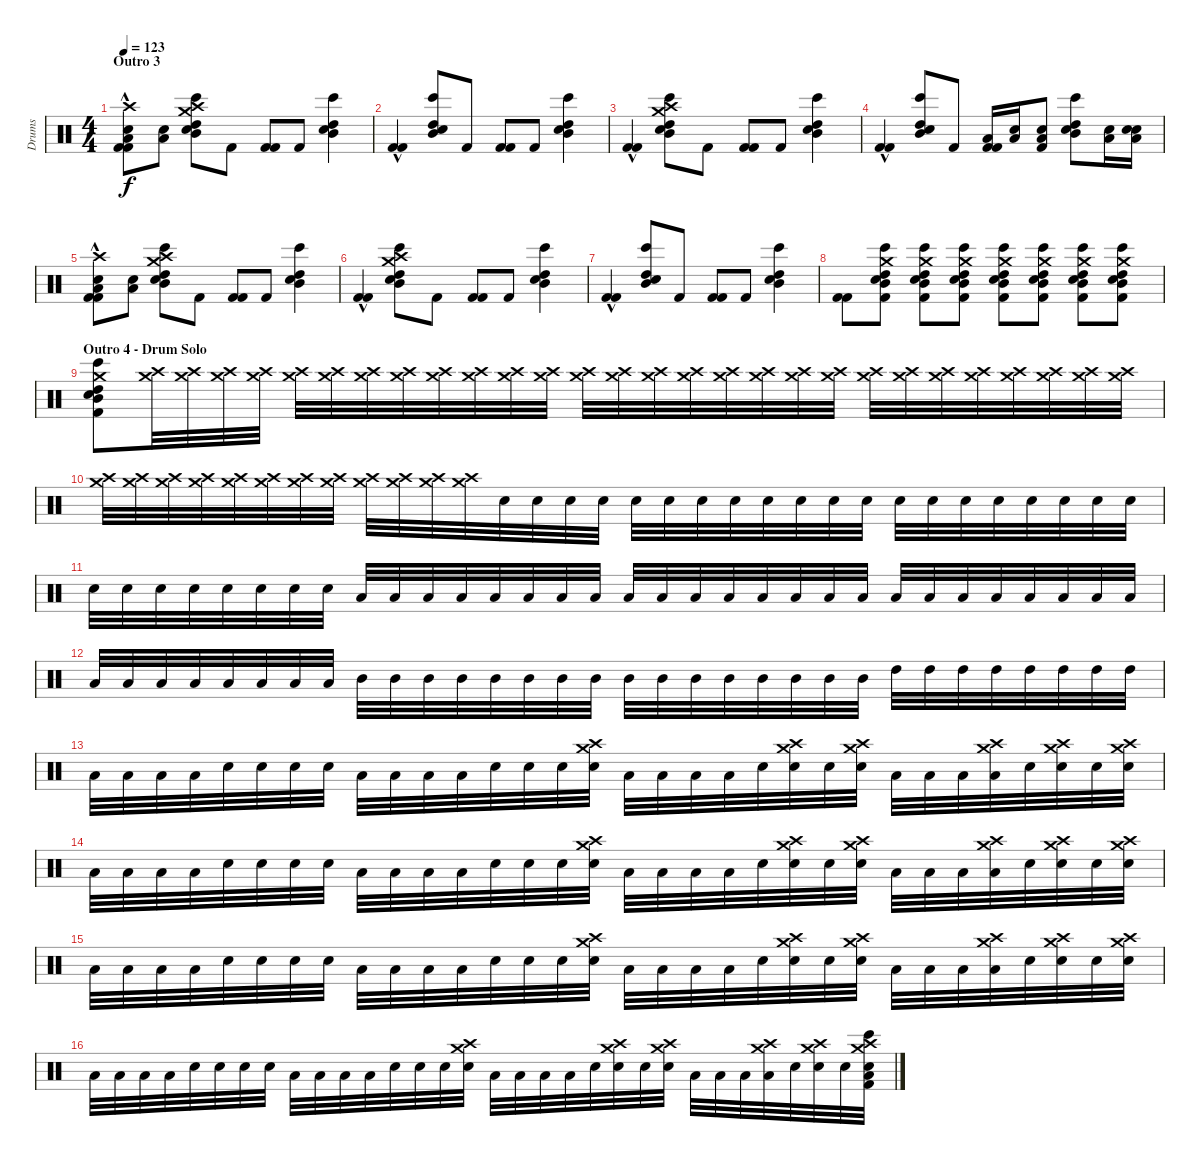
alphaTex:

\track ("Drums" "Drums") {instrument percussion}
\staff {score}
\articulation defaults
\ts (4 4)
\section ("" "Outro 3")
\tempo 123
\clef neutral
\ks c
("Crash high (hit)" "Snare (hit) 2" "Low Floor Tom (hit)" "Kick (hit) 2"{hac} "Kick (hit) 2"{hac}).8{dy f} ("Snare (hit) 2" "Low Floor Tom (hit)").8 ("Crash high (hit)" "Bongo High (hit)" "High Tom (hit)" "Mid Tom (hit)" "Snare (hit) 2" "Crash medium (hit)").8 "Kick (hit) 2".8 ("Kick (hit) 2" "Kick (hit) 2").8 "Kick (hit) 2".8 ("Bongo High (hit)" "High Tom (hit)" "Mid Tom (hit)" "Snare (hit) 2").4 |
("Kick (hit) 2"{hac} "Kick (hit) 2"{hac}).4 ("Bongo High (hit)" "High Tom (hit)" "Mid Tom (hit)" "Snare (hit) 2").8 "Kick (hit) 2".8 ("Kick (hit) 2" "Kick (hit) 2").8 "Kick (hit) 2".8 ("Bongo High (hit)" "High Tom (hit)" "Mid Tom (hit)" "Snare (hit) 2").4 |
("Kick (hit) 2"{hac} "Kick (hit) 2"{hac}).4 ("Crash high (hit)" "Bongo High (hit)" "High Tom (hit)" "Mid Tom (hit)" "Snare (hit) 2" "Crash medium (hit)").8 "Kick (hit) 2".8 ("Kick (hit) 2" "Kick (hit) 2").8 "Kick (hit) 2".8 ("Bongo High (hit)" "High Tom (hit)" "Mid Tom (hit)" "Snare (hit) 2").4 |
("Kick (hit) 2"{hac} "Kick (hit) 2"{hac}).4 ("Bongo High (hit)" "High Tom (hit)" "Mid Tom (hit)" "Snare (hit) 2").8 "Kick (hit) 2".8 ("Low Floor Tom (hit)" "Kick (hit) 2" "Kick (hit) 2").16 ("Snare (hit) 2" "Low Floor Tom (hit)").16 ("Snare (hit) 2" "Low Floor Tom (hit)" "Kick (hit) 2").8 ("Bongo High (hit)" "High Tom (hit)" "Mid Tom (hit)" "Snare (hit) 2").8 ("Low Floor Tom (hit)" "Snare (hit) 2").16 ("Snare (hit) 2" "Low Floor Tom (hit)" "Snare (hit) 2").16 |
("Crash high (hit)" "Snare (hit) 2" "Low Floor Tom (hit)" "Kick (hit) 2"{hac} "Kick (hit) 2"{hac}).8 ("Snare (hit) 2" "Low Floor Tom (hit)").8 ("Crash high (hit)" "Bongo High (hit)" "High Tom (hit)" "Mid Tom (hit)" "Snare (hit) 2" "Crash medium (hit)").8 "Kick (hit) 2".8 ("Kick (hit) 2" "Kick (hit) 2").8 "Kick (hit) 2".8 ("Bongo High (hit)" "High Tom (hit)" "Mid Tom (hit)" "Snare (hit) 2").4 |
("Kick (hit) 2"{hac} "Kick (hit) 2"{hac}).4 ("Crash high (hit)" "Bongo High (hit)" "High Tom (hit)" "Mid Tom (hit)" "Snare (hit) 2" "Crash medium (hit)").8 "Kick (hit) 2".8 ("Kick (hit) 2" "Kick (hit) 2").8 "Kick (hit) 2".8 ("Bongo High (hit)" "High Tom (hit)" "Mid Tom (hit)" "Snare (hit) 2").4 |
("Kick (hit) 2"{hac} "Kick (hit) 2"{hac}).4 ("Bongo High (hit)" "High Tom (hit)" "Mid Tom (hit)" "Snare (hit) 2").8 "Kick (hit) 2".8 ("Kick (hit) 2" "Kick (hit) 2").8 "Kick (hit) 2".8 ("Bongo High (hit)" "High Tom (hit)" "Mid Tom (hit)" "Snare (hit) 2").4 |
("Kick (hit) 2" "Kick (hit) 2").8 ("Crash medium (hit)" "Bongo High (hit)" "High Tom (hit)" "Mid Tom (hit)" "Snare (hit) 2" "Kick (hit) 2").8 ("Crash medium (hit)" "Bongo High (hit)" "High Tom (hit)" "Mid Tom (hit)" "Snare (hit) 2" "Kick (hit) 2").8 ("Crash medium (hit)" "Bongo High (hit)" "High Tom (hit)" "Mid Tom (hit)" "Snare (hit) 2" "Kick (hit) 2").8 ("Crash medium (hit)" "Bongo High (hit)" "High Tom (hit)" "Mid Tom (hit)" "Snare (hit) 2" "Kick (hit) 2").8 ("Crash medium (hit)" "Bongo High (hit)" "High Tom (hit)" "Mid Tom (hit)" "Snare (hit) 2" "Kick (hit) 2").8 ("Crash medium (hit)" "Bongo High (hit)" "High Tom (hit)" "Mid Tom (hit)" "Snare (hit) 2" "Kick (hit) 2").8 ("Crash medium (hit)" "Bongo High (hit)" "High Tom (hit)" "Mid Tom (hit)" "Snare (hit) 2" "Kick (hit) 2").8 |
\section ("" "Outro 4 - Drum Solo")
("Crash medium (hit)" "Bongo High (hit)" "High Tom (hit)" "Mid Tom (hit)" "Snare (hit) 2" "Kick (hit) 2").8 ("Crash medium (hit)" "Crash high (hit)").32 ("Crash medium (hit)" "Crash high (hit)").32 ("Crash medium (hit)" "Crash high (hit)").32 ("Crash medium (hit)" "Crash high (hit)").32 ("Crash medium (hit)" "Crash high (hit)").32 ("Crash medium (hit)" "Crash high (hit)").32 ("Crash medium (hit)" "Crash high (hit)").32 ("Crash medium (hit)" "Crash high (hit)").32 ("Crash medium (hit)" "Crash high (hit)").32 ("Crash medium (hit)" "Crash high (hit)").32 ("Crash medium (hit)" "Crash high (hit)").32 ("Crash medium (hit)" "Crash high (hit)").32 ("Crash medium (hit)" "Crash high (hit)").32 ("Crash medium (hit)" "Crash high (hit)").32 ("Crash medium (hit)" "Crash high (hit)").32 ("Crash medium (hit)" "Crash high (hit)").32 ("Crash medium (hit)" "Crash high (hit)").32 ("Crash medium (hit)" "Crash high (hit)").32 ("Crash medium (hit)" "Crash high (hit)").32 ("Crash medium (hit)" "Crash high (hit)").32 ("Crash medium (hit)" "Crash high (hit)").32 ("Crash medium (hit)" "Crash high (hit)").32 ("Crash medium (hit)" "Crash high (hit)").32 ("Crash medium (hit)" "Crash high (hit)").32 ("Crash medium (hit)" "Crash high (hit)").32 ("Crash medium (hit)" "Crash high (hit)").32 ("Crash medium (hit)" "Crash high (hit)").32 ("Crash medium (hit)" "Crash high (hit)").32 |
("Crash medium (hit)" "Crash high (hit)").32 ("Crash medium (hit)" "Crash high (hit)").32 ("Crash medium (hit)" "Crash high (hit)").32 ("Crash medium (hit)" "Crash high (hit)").32 ("Crash medium (hit)" "Crash high (hit)").32 ("Crash medium (hit)" "Crash high (hit)").32 ("Crash medium (hit)" "Crash high (hit)").32 ("Crash medium (hit)" "Crash high (hit)").32 ("Crash medium (hit)" "Crash high (hit)").32 ("Crash medium (hit)" "Crash high (hit)").32 ("Crash medium (hit)" "Crash high (hit)").32 ("Crash medium (hit)" "Crash high (hit)").32 "Snare (hit) 2".32 "Snare (hit) 2".32 "Snare (hit) 2".32 "Snare (hit) 2".32 "Snare (hit) 2".32 "Snare (hit) 2".32 "Snare (hit) 2".32 "Snare (hit) 2".32 "Snare (hit) 2".32 "Snare (hit) 2".32 "Snare (hit) 2".32 "Snare (hit) 2".32 "Snare (hit) 2".32 "Snare (hit) 2".32 "Snare (hit) 2".32 "Snare (hit) 2".32 "Snare (hit) 2".32 "Snare (hit) 2".32 "Snare (hit) 2".32 "Snare (hit) 2".32 |
"Snare (hit) 2".32 "Snare (hit) 2".32 "Snare (hit) 2".32 "Snare (hit) 2".32 "Snare (hit) 2".32 "Snare (hit) 2".32 "Snare (hit) 2".32 "Snare (hit) 2".32 "Low Floor Tom (hit)".32 "Low Floor Tom (hit)".32 "Low Floor Tom (hit)".32 "Low Floor Tom (hit)".32 "Low Floor Tom (hit)".32 "Low Floor Tom (hit)".32 "Low Floor Tom (hit)".32 "Low Floor Tom (hit)".32 "Low Floor Tom (hit)".32 "Low Floor Tom (hit)".32 "Low Floor Tom (hit)".32 "Low Floor Tom (hit)".32 "Low Floor Tom (hit)".32 "Low Floor Tom (hit)".32 "Low Floor Tom (hit)".32 "Low Floor Tom (hit)".32 "Low Floor Tom (hit)".32 "Low Floor Tom (hit)".32 "Low Floor Tom (hit)".32 "Low Floor Tom (hit)".32 "Low Floor Tom (hit)".32 "Low Floor Tom (hit)".32 "Low Floor Tom (hit)".32 "Low Floor Tom (hit)".32 |
"Low Floor Tom (hit)".32 "Low Floor Tom (hit)".32 "Low Floor Tom (hit)".32 "Low Floor Tom (hit)".32 "Low Floor Tom (hit)".32 "Low Floor Tom (hit)".32 "Low Floor Tom (hit)".32 "Low Floor Tom (hit)".32 "Mid Tom (hit)".32 "Mid Tom (hit)".32 "Mid Tom (hit)".32 "Mid Tom (hit)".32 "Mid Tom (hit)".32 "Mid Tom (hit)".32 "Mid Tom (hit)".32 "Mid Tom (hit)".32 "Mid Tom (hit)".32 "Mid Tom (hit)".32 "Mid Tom (hit)".32 "Mid Tom (hit)".32 "Mid Tom (hit)".32 "Mid Tom (hit)".32 "Mid Tom (hit)".32 "Mid Tom (hit)".32 "High Tom (hit)".32 "High Tom (hit)".32 "High Tom (hit)".32 "High Tom (hit)".32 "High Tom (hit)".32 "High Tom (hit)".32 "High Tom (hit)".32 "High Tom (hit)".32 |
"Low Floor Tom (hit)".32 "Low Floor Tom (hit)".32 "Low Floor Tom (hit)".32 "Low Floor Tom (hit)".32 "Snare (hit) 2".32 "Snare (hit) 2".32 "Snare (hit) 2".32 "Snare (hit) 2".32 "Low Floor Tom (hit)".32 "Low Floor Tom (hit)".32 "Low Floor Tom (hit)".32 "Low Floor Tom (hit)".32 "Snare (hit) 2".32 "Snare (hit) 2".32 "Snare (hit) 2".32 ("Crash high (hit)" "Crash medium (hit)" "Snare (hit) 2").32 "Low Floor Tom (hit)".32 "Low Floor Tom (hit)".32 "Low Floor Tom (hit)".32 "Low Floor Tom (hit)".32 "Snare (hit) 2".32 ("Crash high (hit)" "Crash medium (hit)" "Snare (hit) 2").32 "Snare (hit) 2".32 ("Crash high (hit)" "Crash medium (hit)" "Snare (hit) 2").32 "Low Floor Tom (hit)".32 "Low Floor Tom (hit)".32 "Low Floor Tom (hit)".32 ("Crash high (hit)" "Crash medium (hit)" "Low Floor Tom (hit)").32 "Snare (hit) 2".32 ("Crash high (hit)" "Crash medium (hit)" "Snare (hit) 2").32 "Snare (hit) 2".32 ("Crash high (hit)" "Crash medium (hit)" "Snare (hit) 2").32 |
"Low Floor Tom (hit)".32 "Low Floor Tom (hit)".32 "Low Floor Tom (hit)".32 "Low Floor Tom (hit)".32 "Snare (hit) 2".32 "Snare (hit) 2".32 "Snare (hit) 2".32 "Snare (hit) 2".32 "Low Floor Tom (hit)".32 "Low Floor Tom (hit)".32 "Low Floor Tom (hit)".32 "Low Floor Tom (hit)".32 "Snare (hit) 2".32 "Snare (hit) 2".32 "Snare (hit) 2".32 ("Crash high (hit)" "Crash medium (hit)" "Snare (hit) 2").32 "Low Floor Tom (hit)".32 "Low Floor Tom (hit)".32 "Low Floor Tom (hit)".32 "Low Floor Tom (hit)".32 "Snare (hit) 2".32 ("Crash high (hit)" "Crash medium (hit)" "Snare (hit) 2").32 "Snare (hit) 2".32 ("Crash high (hit)" "Crash medium (hit)" "Snare (hit) 2").32 "Low Floor Tom (hit)".32 "Low Floor Tom (hit)".32 "Low Floor Tom (hit)".32 ("Crash high (hit)" "Crash medium (hit)" "Low Floor Tom (hit)").32 "Snare (hit) 2".32 ("Crash high (hit)" "Crash medium (hit)" "Snare (hit) 2").32 "Snare (hit) 2".32 ("Crash high (hit)" "Crash medium (hit)" "Snare (hit) 2").32 |
"Low Floor Tom (hit)".32 "Low Floor Tom (hit)".32 "Low Floor Tom (hit)".32 "Low Floor Tom (hit)".32 "Snare (hit) 2".32 "Snare (hit) 2".32 "Snare (hit) 2".32 "Snare (hit) 2".32 "Low Floor Tom (hit)".32 "Low Floor Tom (hit)".32 "Low Floor Tom (hit)".32 "Low Floor Tom (hit)".32 "Snare (hit) 2".32 "Snare (hit) 2".32 "Snare (hit) 2".32 ("Crash high (hit)" "Crash medium (hit)" "Snare (hit) 2").32 "Low Floor Tom (hit)".32 "Low Floor Tom (hit)".32 "Low Floor Tom (hit)".32 "Low Floor Tom (hit)".32 "Snare (hit) 2".32 ("Crash high (hit)" "Crash medium (hit)" "Snare (hit) 2").32 "Snare (hit) 2".32 ("Crash high (hit)" "Crash medium (hit)" "Snare (hit) 2").32 "Low Floor Tom (hit)".32 "Low Floor Tom (hit)".32 "Low Floor Tom (hit)".32 ("Crash high (hit)" "Crash medium (hit)" "Low Floor Tom (hit)").32 "Snare (hit) 2".32 ("Crash high (hit)" "Crash medium (hit)" "Snare (hit) 2").32 "Snare (hit) 2".32 ("Crash high (hit)" "Crash medium (hit)" "Snare (hit) 2").32 |
"Low Floor Tom (hit)".32 "Low Floor Tom (hit)".32 "Low Floor Tom (hit)".32 "Low Floor Tom (hit)".32 "Snare (hit) 2".32 "Snare (hit) 2".32 "Snare (hit) 2".32 "Snare (hit) 2".32 "Low Floor Tom (hit)".32 "Low Floor Tom (hit)".32 "Low Floor Tom (hit)".32 "Low Floor Tom (hit)".32 "Snare (hit) 2".32 "Snare (hit) 2".32 "Snare (hit) 2".32 ("Crash high (hit)" "Crash medium (hit)" "Snare (hit) 2").32 "Low Floor Tom (hit)".32 "Low Floor Tom (hit)".32 "Low Floor Tom (hit)".32 "Low Floor Tom (hit)".32 "Snare (hit) 2".32 ("Crash high (hit)" "Crash medium (hit)" "Snare (hit) 2").32 "Snare (hit) 2".32 ("Crash high (hit)" "Crash medium (hit)" "Snare (hit) 2").32 "Low Floor Tom (hit)".32 "Low Floor Tom (hit)".32 "Low Floor Tom (hit)".32 ("Crash high (hit)" "Crash medium (hit)" "Low Floor Tom (hit)").32 "Snare (hit) 2".32 ("Crash high (hit)" "Crash medium (hit)" "Snare (hit) 2").32 "Snare (hit) 2".32 ("Bongo High (hit)" "Low Floor Tom (hit)" "Crash high (hit)" "Crash medium (hit)" "Snare (hit) 2" "Kick (hit) 2").32
